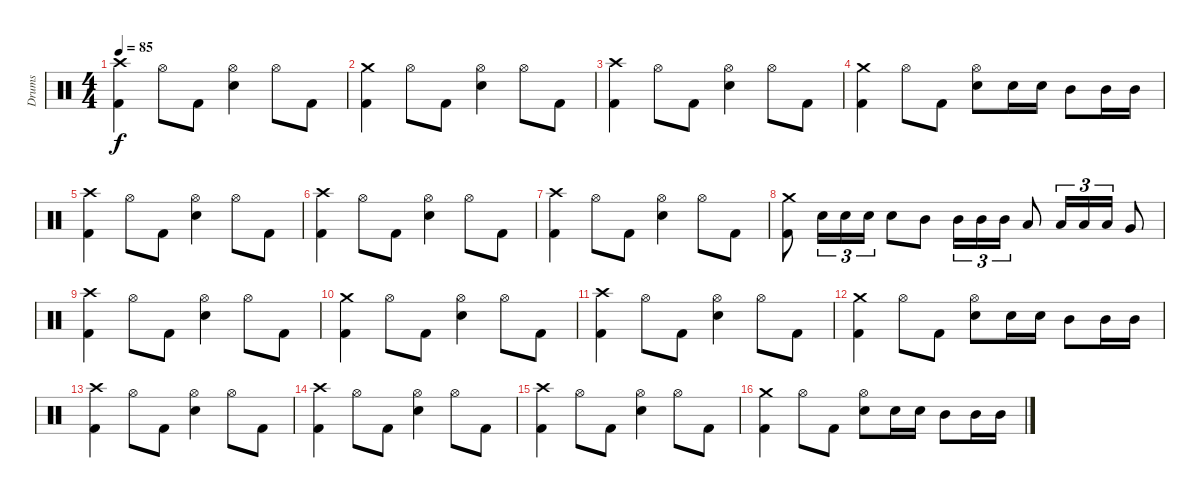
\track ("Drums" "Drums") {instrument percussion}
\staff {score}
\articulation defaults
\ts (4 4)
\tempo 85
\clef neutral
\ks c
("Crash high (hit)" "Kick (hit) 2").4{dy f} "Hi-Hat (open)".8 "Kick (hit) 2".8 ("Hi-Hat (open)" "Electric Snare (hit)").4 "Hi-Hat (open)".8 "Kick (hit) 2".8 |
("Crash medium (hit)" "Kick (hit) 2").4 "Hi-Hat (open)".8 "Kick (hit) 2".8 ("Hi-Hat (open)" "Electric Snare (hit)").4 "Hi-Hat (open)".8 "Kick (hit) 2".8 |
("Crash high (hit)" "Kick (hit) 2").4 "Hi-Hat (open)".8 "Kick (hit) 2".8 ("Hi-Hat (open)" "Electric Snare (hit)").4 "Hi-Hat (open)".8 "Kick (hit) 2".8 |
("Crash medium (hit)" "Kick (hit) 2").4 "Hi-Hat (open)".8 "Kick (hit) 2".8 ("Hi-Hat (open)" "Electric Snare (hit)").8 "Electric Snare (hit)".16 "Electric Snare (hit)".16 "Mid Tom (hit)".8 "Mid Tom (hit)".16 "Mid Tom (hit)".16 |
("Crash high (hit)" "Kick (hit) 2").4 "Hi-Hat (open)".8 "Kick (hit) 2".8 ("Hi-Hat (open)" "Electric Snare (hit)").4 "Hi-Hat (open)".8 "Kick (hit) 2".8 |
("Crash high (hit)" "Kick (hit) 2").4 "Hi-Hat (open)".8 "Kick (hit) 2".8 ("Hi-Hat (open)" "Electric Snare (hit)").4 "Hi-Hat (open)".8 "Kick (hit) 2".8 |
("Crash high (hit)" "Kick (hit) 2").4 "Hi-Hat (open)".8 "Kick (hit) 2".8 ("Hi-Hat (open)" "Electric Snare (hit)").4 "Hi-Hat (open)".8 "Kick (hit) 2".8 |
("Crash medium (hit)" "Kick (hit) 2").8 "Electric Snare (hit)".16{tu (3 2)} "Electric Snare (hit)".16{tu (3 2)} "Electric Snare (hit)".16{tu (3 2)} "Electric Snare (hit)".8 "Mid Tom (hit)".8 "Mid Tom (hit)".16{tu (3 2)} "Mid Tom (hit)".16{tu (3 2)} "Mid Tom (hit)".16{tu (3 2)} "Low Tom (hit)".8 "Low Tom (hit)".16{tu (3 2)} "Low Tom (hit)".16{tu (3 2)} "Low Tom (hit)".16{tu (3 2)} "Very Low Tom (hit)".8 |
("Crash high (hit)" "Kick (hit) 2").4 "Hi-Hat (open)".8 "Kick (hit) 2".8 ("Hi-Hat (open)" "Electric Snare (hit)").4 "Hi-Hat (open)".8 "Kick (hit) 2".8 |
("Crash medium (hit)" "Kick (hit) 2").4 "Hi-Hat (open)".8 "Kick (hit) 2".8 ("Hi-Hat (open)" "Electric Snare (hit)").4 "Hi-Hat (open)".8 "Kick (hit) 2".8 |
("Crash high (hit)" "Kick (hit) 2").4 "Hi-Hat (open)".8 "Kick (hit) 2".8 ("Hi-Hat (open)" "Electric Snare (hit)").4 "Hi-Hat (open)".8 "Kick (hit) 2".8 |
("Crash medium (hit)" "Kick (hit) 2").4 "Hi-Hat (open)".8 "Kick (hit) 2".8 ("Hi-Hat (open)" "Electric Snare (hit)").8 "Electric Snare (hit)".16 "Electric Snare (hit)".16 "Mid Tom (hit)".8 "Mid Tom (hit)".16 "Mid Tom (hit)".16 |
("Crash high (hit)" "Kick (hit) 2").4 "Hi-Hat (open)".8 "Kick (hit) 2".8 ("Hi-Hat (open)" "Electric Snare (hit)").4 "Hi-Hat (open)".8 "Kick (hit) 2".8 |
("Crash high (hit)" "Kick (hit) 2").4 "Hi-Hat (open)".8 "Kick (hit) 2".8 ("Hi-Hat (open)" "Electric Snare (hit)").4 "Hi-Hat (open)".8 "Kick (hit) 2".8 |
("Crash high (hit)" "Kick (hit) 2").4 "Hi-Hat (open)".8 "Kick (hit) 2".8 ("Hi-Hat (open)" "Electric Snare (hit)").4 "Hi-Hat (open)".8 "Kick (hit) 2".8 |
("Crash medium (hit)" "Kick (hit) 2").4 "Hi-Hat (open)".8 "Kick (hit) 2".8 ("Hi-Hat (open)" "Electric Snare (hit)").8 "Electric Snare (hit)".16 "Electric Snare (hit)".16 "Mid Tom (hit)".8 "Mid Tom (hit)".16 "Mid Tom (hit)".16
